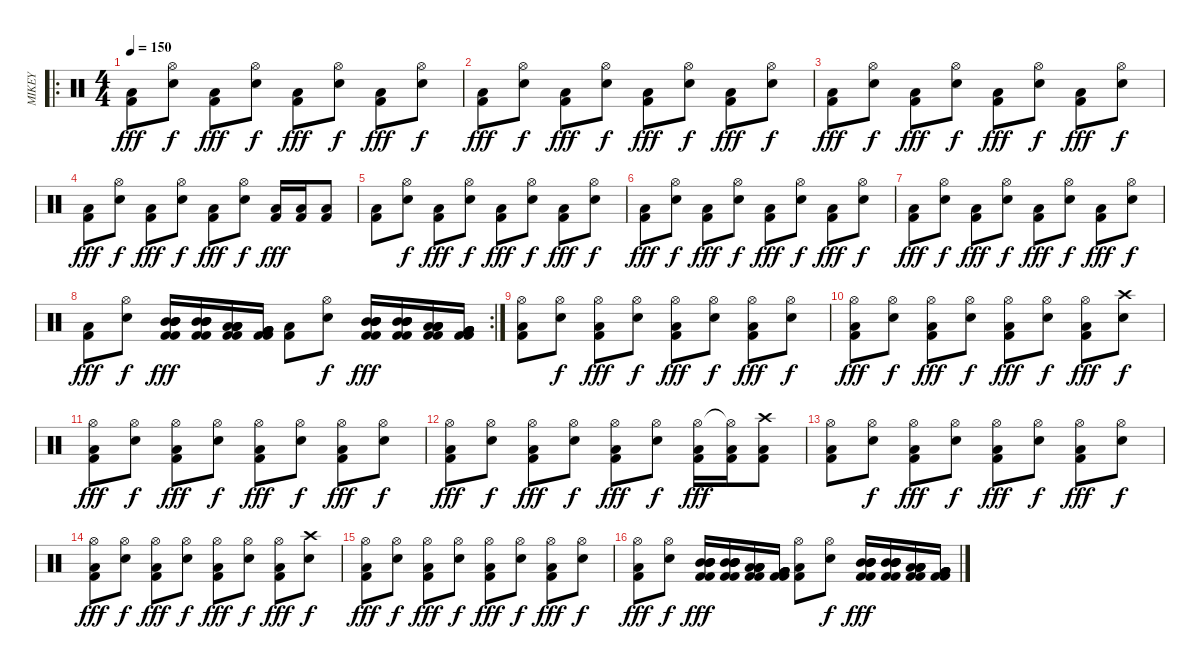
\track ("MIKEY" "MIKEY") {instrument percussion}
\staff {score}
\articulation defaults
\ro
\ts (4 4)
\tempo 150
\clef neutral
\ks c
("Low Floor Tom (hit)" "Kick (hit) 2").8{dy fff} ("Hi-Hat (open)" "Electric Snare (hit)").8{dy f} ("Low Floor Tom (hit)" "Kick (hit) 2").8{dy fff} ("Hi-Hat (open)" "Electric Snare (hit)").8{dy f} ("Low Floor Tom (hit)" "Kick (hit) 2").8{dy fff} ("Hi-Hat (open)" "Electric Snare (hit)").8{dy f} ("Low Floor Tom (hit)" "Kick (hit) 2").8{dy fff} ("Hi-Hat (open)" "Electric Snare (hit)").8{dy f} |
("Low Floor Tom (hit)" "Kick (hit) 2").8{dy fff} ("Hi-Hat (open)" "Electric Snare (hit)").8{dy f} ("Low Floor Tom (hit)" "Kick (hit) 2").8{dy fff} ("Hi-Hat (open)" "Electric Snare (hit)").8{dy f} ("Low Floor Tom (hit)" "Kick (hit) 2").8{dy fff} ("Hi-Hat (open)" "Electric Snare (hit)").8{dy f} ("Low Floor Tom (hit)" "Kick (hit) 2").8{dy fff} ("Hi-Hat (open)" "Electric Snare (hit)").8{dy f} |
("Low Floor Tom (hit)" "Kick (hit) 2").8{dy fff} ("Hi-Hat (open)" "Electric Snare (hit)").8{dy f} ("Low Floor Tom (hit)" "Kick (hit) 2").8{dy fff} ("Hi-Hat (open)" "Electric Snare (hit)").8{dy f} ("Low Floor Tom (hit)" "Kick (hit) 2").8{dy fff} ("Hi-Hat (open)" "Electric Snare (hit)").8{dy f} ("Low Floor Tom (hit)" "Kick (hit) 2").8{dy fff} ("Hi-Hat (open)" "Electric Snare (hit)").8{dy f} |
("Low Floor Tom (hit)" "Kick (hit) 2").8{dy fff} ("Hi-Hat (open)" "Electric Snare (hit)").8{dy f} ("Low Floor Tom (hit)" "Kick (hit) 2").8{dy fff} ("Hi-Hat (open)" "Electric Snare (hit)").8{dy f} ("Low Floor Tom (hit)" "Kick (hit) 2").8{dy fff} ("Hi-Hat (open)" "Electric Snare (hit)").8{dy f} ("Low Floor Tom (hit)" "Kick (hit) 2").16{dy fff} ("Low Floor Tom (hit)" "Kick (hit) 2").16 ("Low Tom (hit)" "Kick (hit) 2").8 |
("Low Floor Tom (hit)" "Kick (hit) 2").8 ("Hi-Hat (open)" "Electric Snare (hit)").8{dy f} ("Low Floor Tom (hit)" "Kick (hit) 2").8{dy fff} ("Hi-Hat (open)" "Electric Snare (hit)").8{dy f} ("Low Floor Tom (hit)" "Kick (hit) 2").8{dy fff} ("Hi-Hat (open)" "Electric Snare (hit)").8{dy f} ("Low Floor Tom (hit)" "Kick (hit) 2").8{dy fff} ("Hi-Hat (open)" "Electric Snare (hit)").8{dy f} |
("Low Floor Tom (hit)" "Kick (hit) 2").8{dy fff} ("Hi-Hat (open)" "Electric Snare (hit)").8{dy f} ("Low Floor Tom (hit)" "Kick (hit) 2").8{dy fff} ("Hi-Hat (open)" "Electric Snare (hit)").8{dy f} ("Low Floor Tom (hit)" "Kick (hit) 2").8{dy fff} ("Hi-Hat (open)" "Electric Snare (hit)").8{dy f} ("Low Floor Tom (hit)" "Kick (hit) 2").8{dy fff} ("Hi-Hat (open)" "Electric Snare (hit)").8{dy f} |
("Low Floor Tom (hit)" "Kick (hit) 2").8{dy fff} ("Hi-Hat (open)" "Electric Snare (hit)").8{dy f} ("Low Floor Tom (hit)" "Kick (hit) 2").8{dy fff} ("Hi-Hat (open)" "Electric Snare (hit)").8{dy f} ("Low Floor Tom (hit)" "Kick (hit) 2").8{dy fff} ("Hi-Hat (open)" "Electric Snare (hit)").8{dy f} ("Low Floor Tom (hit)" "Kick (hit) 2").8{dy fff} ("Hi-Hat (open)" "Electric Snare (hit)").8{dy f} |
\rc 2
("Low Floor Tom (hit)" "Kick (hit) 2").8{dy fff} ("Hi-Hat (open)" "Electric Snare (hit)").8{dy f} ("Kick (hit) 2" "Mid Tom (hit)" "Kick (hit) 2" "Mid Tom (hit)" "Mid Tom (hit)" "Mid Tom (hit)").16{dy fff} ("Kick (hit) 2" "Mid Tom (hit)" "Kick (hit) 2" "Mid Tom (hit)" "Mid Tom (hit)" "Mid Tom (hit)").16 ("Kick (hit) 2" "Low Tom (hit)" "Kick (hit) 2" "Low Tom (hit)" "Low Tom (hit)" "Low Tom (hit)").16 ("Kick (hit) 2" "Very Low Tom (hit)" "Kick (hit) 2" "Very Low Tom (hit)" "Very Low Tom (hit)" "Very Low Tom (hit)").16 ("Low Floor Tom (hit)" "Kick (hit) 2").8 ("Hi-Hat (open)" "Electric Snare (hit)").8{dy f} ("Kick (hit) 2" "Mid Tom (hit)" "Kick (hit) 2" "Mid Tom (hit)" "Mid Tom (hit)" "Mid Tom (hit)").16{dy fff} ("Kick (hit) 2" "Mid Tom (hit)" "Kick (hit) 2" "Mid Tom (hit)" "Mid Tom (hit)" "Mid Tom (hit)").16 ("Kick (hit) 2" "Low Tom (hit)" "Kick (hit) 2" "Low Tom (hit)" "Low Tom (hit)" "Low Tom (hit)").16 ("Kick (hit) 2" "Very Low Tom (hit)" "Kick (hit) 2" "Very Low Tom (hit)" "Very Low Tom (hit)" "Very Low Tom (hit)").16 |
("Hi-Hat (open)" "Low Floor Tom (hit)" "Kick (hit) 2").8 ("Hi-Hat (open)" "Electric Snare (hit)").8{dy f} ("Hi-Hat (open)" "Low Floor Tom (hit)" "Kick (hit) 2").8{dy fff} ("Hi-Hat (open)" "Electric Snare (hit)").8{dy f} ("Hi-Hat (open)" "Low Floor Tom (hit)" "Kick (hit) 2").8{dy fff} ("Hi-Hat (open)" "Electric Snare (hit)").8{dy f} ("Hi-Hat (open)" "Low Floor Tom (hit)" "Kick (hit) 2").8{dy fff} ("Hi-Hat (open)" "Electric Snare (hit)").8{dy f} |
("Hi-Hat (open)" "Low Floor Tom (hit)" "Kick (hit) 2").8{dy fff} ("Hi-Hat (open)" "Electric Snare (hit)").8{dy f} ("Hi-Hat (open)" "Low Floor Tom (hit)" "Kick (hit) 2").8{dy fff} ("Hi-Hat (open)" "Electric Snare (hit)").8{dy f} ("Hi-Hat (open)" "Low Floor Tom (hit)" "Kick (hit) 2").8{dy fff} ("Hi-Hat (open)" "Electric Snare (hit)").8{dy f} ("Hi-Hat (open)" "Low Floor Tom (hit)" "Kick (hit) 2").8{dy fff} ("Crash high (hit)" "Electric Snare (hit)").8{dy f} |
("Hi-Hat (open)" "Low Floor Tom (hit)" "Kick (hit) 2").8{dy fff} ("Hi-Hat (open)" "Electric Snare (hit)").8{dy f} ("Hi-Hat (open)" "Low Floor Tom (hit)" "Kick (hit) 2").8{dy fff} ("Hi-Hat (open)" "Electric Snare (hit)").8{dy f} ("Hi-Hat (open)" "Low Floor Tom (hit)" "Kick (hit) 2").8{dy fff} ("Hi-Hat (open)" "Electric Snare (hit)").8{dy f} ("Hi-Hat (open)" "Low Floor Tom (hit)" "Kick (hit) 2").8{dy fff} ("Hi-Hat (open)" "Electric Snare (hit)").8{dy f} |
("Hi-Hat (open)" "Low Floor Tom (hit)" "Kick (hit) 2").8{dy fff} ("Hi-Hat (open)" "Electric Snare (hit)").8{dy f} ("Hi-Hat (open)" "Low Floor Tom (hit)" "Kick (hit) 2").8{dy fff} ("Hi-Hat (open)" "Electric Snare (hit)").8{dy f} ("Hi-Hat (open)" "Low Floor Tom (hit)" "Kick (hit) 2").8{dy fff} ("Hi-Hat (open)" "Electric Snare (hit)").8{dy f} ("Hi-Hat (open)" "Low Floor Tom (hit)" "Kick (hit) 2").16{dy fff} ("Hi-Hat (open)"{t} "Low Floor Tom (hit)" "Kick (hit) 2").16 ("Crash high (hit)" "Low Tom (hit)" "Kick (hit) 2").8 |
("Hi-Hat (open)" "Low Floor Tom (hit)" "Kick (hit) 2").8 ("Hi-Hat (open)" "Electric Snare (hit)").8{dy f} ("Hi-Hat (open)" "Low Floor Tom (hit)" "Kick (hit) 2").8{dy fff} ("Hi-Hat (open)" "Electric Snare (hit)").8{dy f} ("Hi-Hat (open)" "Low Floor Tom (hit)" "Kick (hit) 2").8{dy fff} ("Hi-Hat (open)" "Electric Snare (hit)").8{dy f} ("Hi-Hat (open)" "Low Floor Tom (hit)" "Kick (hit) 2").8{dy fff} ("Hi-Hat (open)" "Electric Snare (hit)").8{dy f} |
("Hi-Hat (open)" "Low Floor Tom (hit)" "Kick (hit) 2").8{dy fff} ("Hi-Hat (open)" "Electric Snare (hit)").8{dy f} ("Hi-Hat (open)" "Low Floor Tom (hit)" "Kick (hit) 2").8{dy fff} ("Hi-Hat (open)" "Electric Snare (hit)").8{dy f} ("Hi-Hat (open)" "Low Floor Tom (hit)" "Kick (hit) 2").8{dy fff} ("Hi-Hat (open)" "Electric Snare (hit)").8{dy f} ("Hi-Hat (open)" "Low Floor Tom (hit)" "Kick (hit) 2").8{dy fff} ("Crash high (hit)" "Electric Snare (hit)").8{dy f} |
("Hi-Hat (open)" "Low Floor Tom (hit)" "Kick (hit) 2").8{dy fff} ("Hi-Hat (open)" "Electric Snare (hit)").8{dy f} ("Hi-Hat (open)" "Low Floor Tom (hit)" "Kick (hit) 2").8{dy fff} ("Hi-Hat (open)" "Electric Snare (hit)").8{dy f} ("Hi-Hat (open)" "Low Floor Tom (hit)" "Kick (hit) 2").8{dy fff} ("Hi-Hat (open)" "Electric Snare (hit)").8{dy f} ("Hi-Hat (open)" "Low Floor Tom (hit)" "Kick (hit) 2").8{dy fff} ("Hi-Hat (open)" "Electric Snare (hit)").8{dy f} |
("Hi-Hat (open)" "Low Floor Tom (hit)" "Kick (hit) 2").8{dy fff} ("Hi-Hat (open)" "Electric Snare (hit)").8{dy f} ("Kick (hit) 2" "Mid Tom (hit)" "Kick (hit) 2" "Mid Tom (hit)" "Mid Tom (hit)" "Mid Tom (hit)").16{dy fff} ("Kick (hit) 2" "Mid Tom (hit)" "Kick (hit) 2" "Mid Tom (hit)" "Mid Tom (hit)" "Mid Tom (hit)").16 ("Kick (hit) 2" "Low Tom (hit)" "Kick (hit) 2" "Low Tom (hit)" "Low Tom (hit)" "Low Tom (hit)").16 ("Kick (hit) 2" "Very Low Tom (hit)" "Kick (hit) 2" "Very Low Tom (hit)" "Very Low Tom (hit)" "Very Low Tom (hit)").16 ("Hi-Hat (open)" "Low Floor Tom (hit)" "Kick (hit) 2").8 ("Hi-Hat (open)" "Electric Snare (hit)").8{dy f} ("Kick (hit) 2" "Mid Tom (hit)" "Kick (hit) 2" "Mid Tom (hit)" "Mid Tom (hit)" "Mid Tom (hit)").16{dy fff} ("Kick (hit) 2" "Mid Tom (hit)" "Kick (hit) 2" "Mid Tom (hit)" "Mid Tom (hit)" "Mid Tom (hit)").16 ("Kick (hit) 2" "Low Tom (hit)" "Kick (hit) 2" "Low Tom (hit)" "Low Tom (hit)" "Low Tom (hit)").16 ("Kick (hit) 2" "Very Low Tom (hit)" "Kick (hit) 2" "Very Low Tom (hit)" "Very Low Tom (hit)" "Very Low Tom (hit)").16
